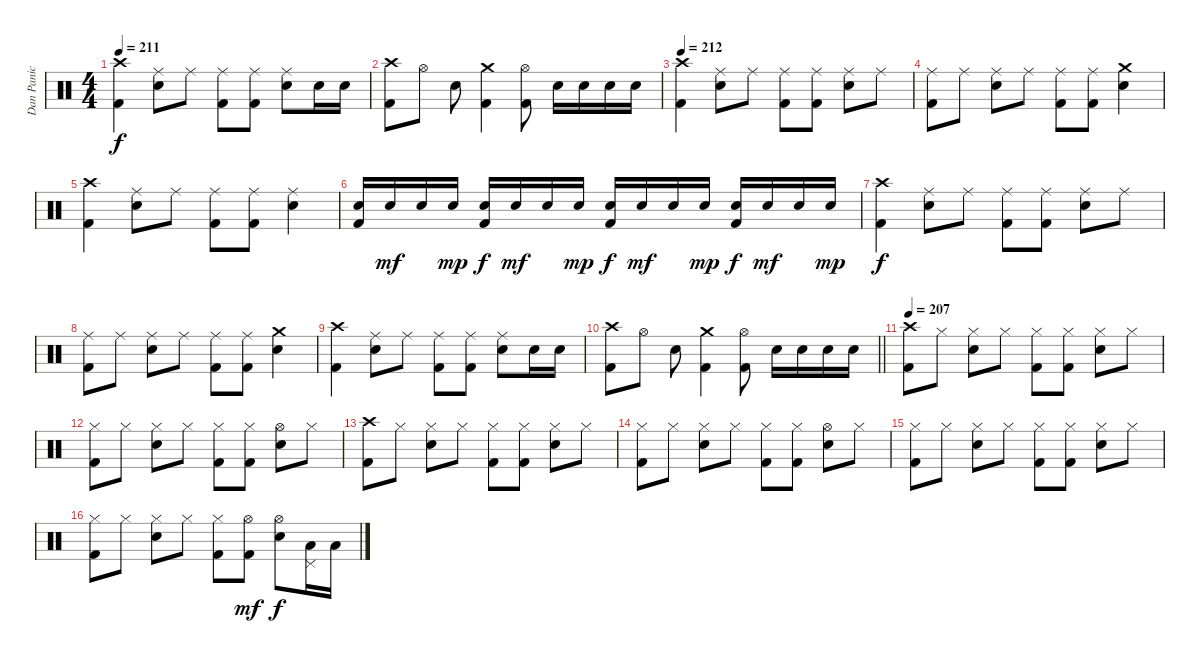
\track ("Dan Panic" "Dan Panic") {instrument percussion}
\staff {score}
\articulation defaults
\ts (4 4)
\tempo 211
\clef neutral
\ks c
("Crash high (hit)" "Kick (hit) 2").4{dy f} ("Ride (middle)" "Electric Snare (hit)").8 "Ride (middle)".8 ("Ride (middle)" "Kick (hit) 2").8 ("Ride (middle)" "Kick (hit) 2").8 ("Ride (middle)" "Electric Snare (hit)").8 "Electric Snare (hit)".16 "Electric Snare (hit)".16 |
("Crash high (hit)" "Kick (hit) 2").8 "Hi-Hat (open)".8 "Electric Snare (hit)".8 ("Crash medium (hit)" "Kick (hit) 2").4 ("Hi-Hat (open)" "Kick (hit) 2").8 "Electric Snare (hit)".16 "Electric Snare (hit)".16 "Electric Snare (hit)".16 "Electric Snare (hit)".16 |
\tempo 212
("Crash high (hit)" "Kick (hit) 2").4 ("Ride (middle)" "Electric Snare (hit)").8 "Ride (middle)".8 ("Ride (middle)" "Kick (hit) 2").8 ("Ride (middle)" "Kick (hit) 2").8 ("Ride (middle)" "Electric Snare (hit)").8 "Ride (middle)".8 |
("Ride (middle)" "Kick (hit) 2").8 "Ride (middle)".8 ("Ride (middle)" "Electric Snare (hit)").8 "Ride (middle)".8 ("Ride (middle)" "Kick (hit) 2").8 ("Ride (middle)" "Kick (hit) 2").8 ("Crash medium (hit)" "Electric Snare (hit)").4 |
("Crash high (hit)" "Kick (hit) 2").4 ("Ride (middle)" "Electric Snare (hit)").8 "Ride (middle)".8 ("Ride (middle)" "Kick (hit) 2").8 ("Ride (middle)" "Kick (hit) 2").8 ("Ride (middle)" "Electric Snare (hit)").4 |
("Electric Snare (hit)" "Kick (hit) 2").16 "Electric Snare (hit)".16{dy mf} "Electric Snare (hit)".16 "Electric Snare (hit)".16{dy mp} ("Electric Snare (hit)" "Kick (hit) 2").16{dy f} "Electric Snare (hit)".16{dy mf} "Electric Snare (hit)".16 "Electric Snare (hit)".16{dy mp} ("Electric Snare (hit)" "Kick (hit) 2").16{dy f} "Electric Snare (hit)".16{dy mf} "Electric Snare (hit)".16 "Electric Snare (hit)".16{dy mp} ("Electric Snare (hit)" "Kick (hit) 2").16{dy f} "Electric Snare (hit)".16{dy mf} "Electric Snare (hit)".16 "Electric Snare (hit)".16{dy mp} |
("Crash high (hit)" "Kick (hit) 2").4{dy f} ("Ride (middle)" "Electric Snare (hit)").8 "Ride (middle)".8 ("Ride (middle)" "Kick (hit) 2").8 ("Ride (middle)" "Kick (hit) 2").8 ("Ride (middle)" "Electric Snare (hit)").8 "Ride (middle)".8 |
("Ride (middle)" "Kick (hit) 2").8 "Ride (middle)".8 ("Ride (middle)" "Electric Snare (hit)").8 "Ride (middle)".8 ("Ride (middle)" "Kick (hit) 2").8 ("Ride (middle)" "Kick (hit) 2").8 ("Crash medium (hit)" "Electric Snare (hit)").4 |
("Crash high (hit)" "Kick (hit) 2").4 ("Ride (middle)" "Electric Snare (hit)").8 "Ride (middle)".8 ("Ride (middle)" "Kick (hit) 2").8 ("Ride (middle)" "Kick (hit) 2").8 ("Ride (middle)" "Electric Snare (hit)").8 "Electric Snare (hit)".16 "Electric Snare (hit)".16 |
\barLineRight lightlight
("Crash high (hit)" "Kick (hit) 2").8 "Hi-Hat (open)".8 "Electric Snare (hit)".8 ("Crash medium (hit)" "Kick (hit) 2").4 ("Hi-Hat (open)" "Kick (hit) 2").8 "Electric Snare (hit)".16 "Electric Snare (hit)".16 "Electric Snare (hit)".16 "Electric Snare (hit)".16 |
\section ("" "")
\tempo 207
("Crash high (hit)" "Kick (hit) 2").8 "Hi-Hat (closed)".8 ("Hi-Hat (closed)" "Electric Snare (hit)").8 "Hi-Hat (closed)".8 ("Hi-Hat (closed)" "Kick (hit) 2").8 ("Hi-Hat (closed)" "Kick (hit) 2").8 ("Hi-Hat (closed)" "Electric Snare (hit)").8 "Hi-Hat (closed)".8 |
("Hi-Hat (closed)" "Kick (hit) 2").8 "Hi-Hat (closed)".8 ("Hi-Hat (closed)" "Electric Snare (hit)").8 "Hi-Hat (closed)".8 ("Hi-Hat (closed)" "Kick (hit) 2").8 ("Hi-Hat (closed)" "Kick (hit) 2").8 ("Hi-Hat (open)" "Electric Snare (hit)").8 "Hi-Hat (closed)".8 |
("Crash high (hit)" "Kick (hit) 2").8 "Hi-Hat (closed)".8 ("Hi-Hat (closed)" "Electric Snare (hit)").8 "Hi-Hat (closed)".8 ("Hi-Hat (closed)" "Kick (hit) 2").8 ("Hi-Hat (closed)" "Kick (hit) 2").8 ("Hi-Hat (closed)" "Electric Snare (hit)").8 "Hi-Hat (closed)".8 |
("Hi-Hat (closed)" "Kick (hit) 2").8 "Hi-Hat (closed)".8 ("Hi-Hat (closed)" "Electric Snare (hit)").8 "Hi-Hat (closed)".8 ("Hi-Hat (closed)" "Kick (hit) 2").8 ("Hi-Hat (closed)" "Kick (hit) 2").8 ("Hi-Hat (open)" "Electric Snare (hit)").8 "Hi-Hat (closed)".8 |
("Hi-Hat (closed)" "Kick (hit) 2").8 "Hi-Hat (closed)".8 ("Hi-Hat (closed)" "Electric Snare (hit)").8 "Hi-Hat (closed)".8 ("Hi-Hat (closed)" "Kick (hit) 2").8 ("Hi-Hat (closed)" "Kick (hit) 2").8 ("Hi-Hat (closed)" "Electric Snare (hit)").8 "Hi-Hat (closed)".8 |
("Hi-Hat (closed)" "Kick (hit) 2").8 "Hi-Hat (closed)".8 ("Hi-Hat (closed)" "Electric Snare (hit)").8 "Hi-Hat (closed)".8 ("Hi-Hat (closed)" "Kick (hit) 2").8 ("Hi-Hat (open)" "Kick (hit) 2").8{dy mf} ("Hi-Hat (open)" "Electric Snare (hit)").8{dy f} ("Pedal Hi-Hat (hit)" "Low Tom (hit)").16 "Low Floor Tom (hit)".16
